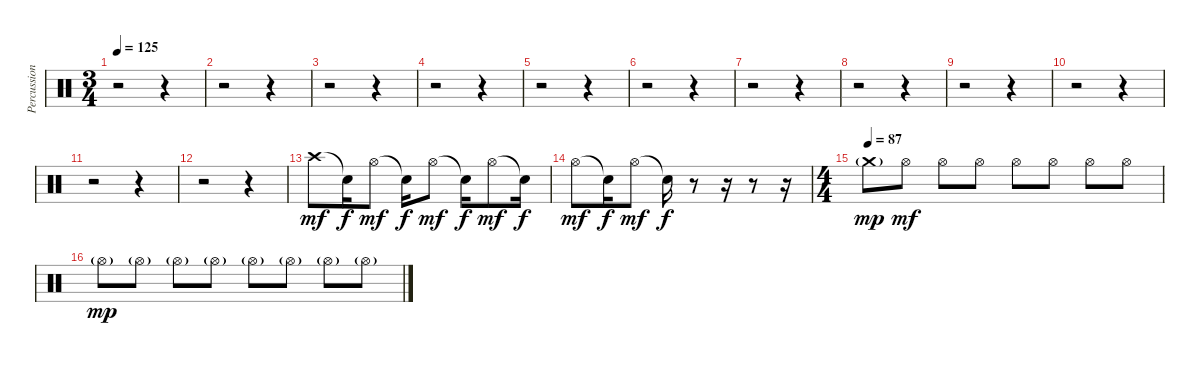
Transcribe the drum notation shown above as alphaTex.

\track ("Percussion2" "Percussion") {instrument percussion}
\staff {score}
\articulation defaults
\ts (3 4)
\tempo 125
\clef neutral
\ks c
r.2{dy mf} r.4 |
r.2 r.4 |
r.2 r.4 |
r.2 r.4 |
r.2 r.4 |
r.2 r.4 |
r.2 r.4 |
r.2 r.4 |
r.2 r.4 |
r.2 r.4 |
r.2 r.4 |
r.2 r.4 |
"Crash high (hit)".8 "Snare (hit)"{t}.16{dy f} "Hi-Hat (open)".8{dy mf} "Snare (hit)"{t}.16{dy f} "Hi-Hat (open)".8{dy mf} "Snare (hit)"{t}.16{dy f} "Hi-Hat (open)".8{dy mf} "Snare (hit)"{t}.16{dy f} |
"Hi-Hat (open)".8{dy mf} "Snare (hit)"{t}.16{dy f} "Hi-Hat (open)".8{dy mf} "Snare (hit)"{t}.16{dy f} r.8 r.16 r.8 r.16 |
\ts (4 4)
\tempo (87)
"Crash medium (hit)"{g}.8{dy mp} "Hi-Hat (open)".8{dy mf} "Hi-Hat (open)".8 "Hi-Hat (open)".8 "Hi-Hat (open)".8 "Hi-Hat (open)".8 "Hi-Hat (open)".8 "Hi-Hat (open)".8 |
"Hi-Hat (open)"{g}.8{dy mp} "Hi-Hat (open)"{g}.8 "Hi-Hat (open)"{g}.8 "Hi-Hat (open)"{g}.8 "Hi-Hat (open)"{g}.8 "Hi-Hat (open)"{g}.8 "Hi-Hat (open)"{g}.8 "Hi-Hat (open)"{g}.8
